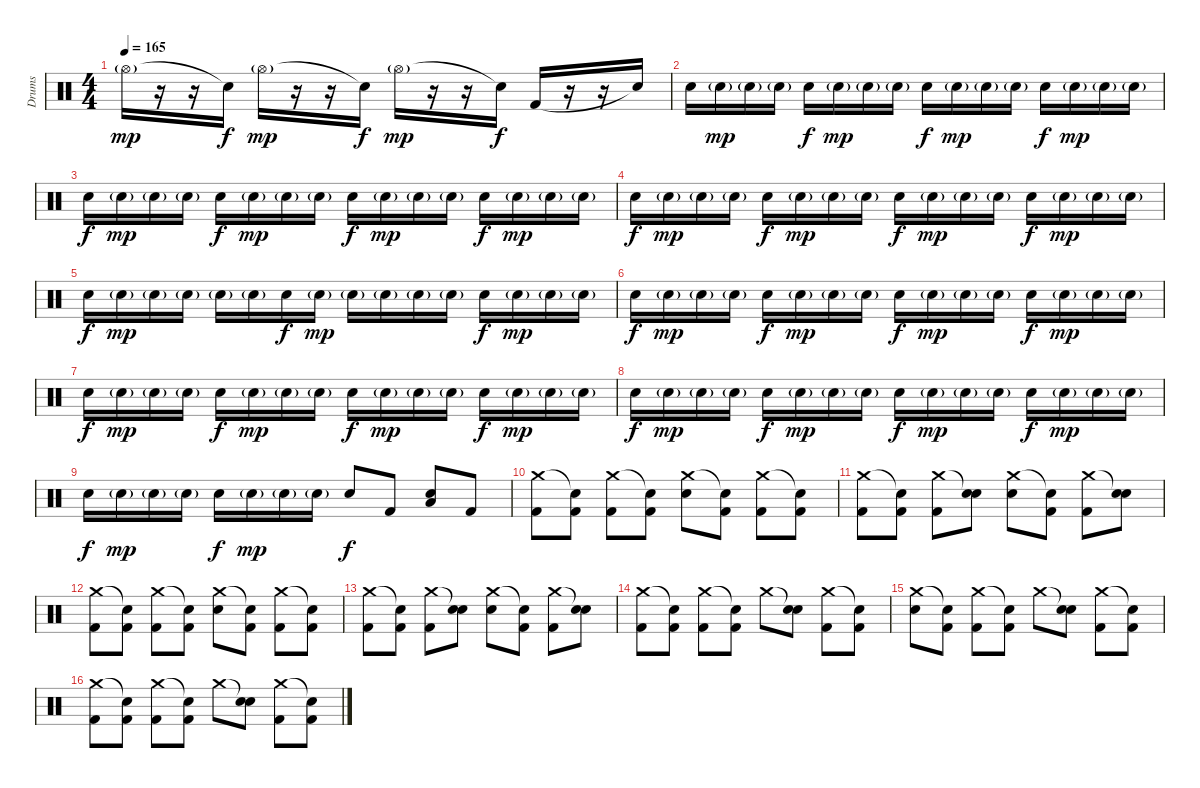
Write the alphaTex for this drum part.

\track ("Drums" "Drums") {instrument percussion}
\staff {score}
\articulation defaults
\ts (4 4)
\tempo 165
\clef neutral
\ks c "Hi-Hat (open)"{g}.16{dy mp}
r.16 r.16 "Snare (hit)"{t}.16{dy f} "Hi-Hat (open)"{g}.16{dy mp} r.16 r.16 "Snare (hit)"{t}.16{dy f} "Hi-Hat (open)"{g}.16{dy mp} r.16 r.16 "Snare (hit)"{t}.16{dy f} "Kick (hit) 2".16 r.16 r.16 "Snare (hit)"{t}.16 |
"Electric Snare (hit)".16 "Electric Snare (hit)"{g}.16{dy mp} "Electric Snare (hit)"{g}.16 "Electric Snare (hit)"{g}.16 "Electric Snare (hit)".16{dy f} "Electric Snare (hit)"{g}.16{dy mp} "Electric Snare (hit)"{g}.16 "Electric Snare (hit)"{g}.16 "Electric Snare (hit)".16{dy f} "Electric Snare (hit)"{g}.16{dy mp} "Electric Snare (hit)"{g}.16 "Electric Snare (hit)"{g}.16 "Electric Snare (hit)".16{dy f} "Electric Snare (hit)"{g}.16{dy mp} "Electric Snare (hit)"{g}.16 "Electric Snare (hit)"{g}.16 |
"Electric Snare (hit)".16{dy f} "Electric Snare (hit)"{g}.16{dy mp} "Electric Snare (hit)"{g}.16 "Electric Snare (hit)"{g}.16 "Electric Snare (hit)".16{dy f} "Electric Snare (hit)"{g}.16{dy mp} "Electric Snare (hit)"{g}.16 "Electric Snare (hit)"{g}.16 "Electric Snare (hit)".16{dy f} "Electric Snare (hit)"{g}.16{dy mp} "Electric Snare (hit)"{g}.16 "Electric Snare (hit)"{g}.16 "Electric Snare (hit)".16{dy f} "Electric Snare (hit)"{g}.16{dy mp} "Electric Snare (hit)"{g}.16 "Electric Snare (hit)"{g}.16 |
"Electric Snare (hit)".16{dy f} "Electric Snare (hit)"{g}.16{dy mp} "Electric Snare (hit)"{g}.16 "Electric Snare (hit)"{g}.16 "Electric Snare (hit)".16{dy f} "Electric Snare (hit)"{g}.16{dy mp} "Electric Snare (hit)"{g}.16 "Electric Snare (hit)"{g}.16 "Electric Snare (hit)".16{dy f} "Electric Snare (hit)"{g}.16{dy mp} "Electric Snare (hit)"{g}.16 "Electric Snare (hit)"{g}.16 "Electric Snare (hit)".16{dy f} "Electric Snare (hit)"{g}.16{dy mp} "Electric Snare (hit)"{g}.16 "Electric Snare (hit)"{g}.16 |
"Electric Snare (hit)".16{dy f} "Electric Snare (hit)"{g}.16{dy mp} "Electric Snare (hit)"{g}.16 "Electric Snare (hit)"{g}.16 "Electric Snare (hit)"{g}.16 "Electric Snare (hit)"{g}.16 "Electric Snare (hit)".16{dy f} "Electric Snare (hit)"{g}.16{dy mp} "Electric Snare (hit)"{g}.16 "Electric Snare (hit)"{g}.16 "Electric Snare (hit)"{g}.16 "Electric Snare (hit)"{g}.16 "Electric Snare (hit)".16{dy f} "Electric Snare (hit)"{g}.16{dy mp} "Electric Snare (hit)"{g}.16 "Electric Snare (hit)"{g}.16 |
"Electric Snare (hit)".16{dy f} "Electric Snare (hit)"{g}.16{dy mp} "Electric Snare (hit)"{g}.16 "Electric Snare (hit)"{g}.16 "Electric Snare (hit)".16{dy f} "Electric Snare (hit)"{g}.16{dy mp} "Electric Snare (hit)"{g}.16 "Electric Snare (hit)"{g}.16 "Electric Snare (hit)".16{dy f} "Electric Snare (hit)"{g}.16{dy mp} "Electric Snare (hit)"{g}.16 "Electric Snare (hit)"{g}.16 "Electric Snare (hit)".16{dy f} "Electric Snare (hit)"{g}.16{dy mp} "Electric Snare (hit)"{g}.16 "Electric Snare (hit)"{g}.16 |
"Electric Snare (hit)".16{dy f} "Electric Snare (hit)"{g}.16{dy mp} "Electric Snare (hit)"{g}.16 "Electric Snare (hit)"{g}.16 "Electric Snare (hit)".16{dy f} "Electric Snare (hit)"{g}.16{dy mp} "Electric Snare (hit)"{g}.16 "Electric Snare (hit)"{g}.16 "Electric Snare (hit)".16{dy f} "Electric Snare (hit)"{g}.16{dy mp} "Electric Snare (hit)"{g}.16 "Electric Snare (hit)"{g}.16 "Electric Snare (hit)".16{dy f} "Electric Snare (hit)"{g}.16{dy mp} "Electric Snare (hit)"{g}.16 "Electric Snare (hit)"{g}.16 |
"Electric Snare (hit)".16{dy f} "Electric Snare (hit)"{g}.16{dy mp} "Electric Snare (hit)"{g}.16 "Electric Snare (hit)"{g}.16 "Electric Snare (hit)".16{dy f} "Electric Snare (hit)"{g}.16{dy mp} "Electric Snare (hit)"{g}.16 "Electric Snare (hit)"{g}.16 "Electric Snare (hit)".16{dy f} "Electric Snare (hit)"{g}.16{dy mp} "Electric Snare (hit)"{g}.16 "Electric Snare (hit)"{g}.16 "Electric Snare (hit)".16{dy f} "Electric Snare (hit)"{g}.16{dy mp} "Electric Snare (hit)"{g}.16 "Electric Snare (hit)"{g}.16 |
"Electric Snare (hit)".16{dy f} "Electric Snare (hit)"{g}.16{dy mp} "Electric Snare (hit)"{g}.16 "Electric Snare (hit)"{g}.16 "Electric Snare (hit)".16{dy f} "Electric Snare (hit)"{g}.16{dy mp} "Electric Snare (hit)"{g}.16 "Electric Snare (hit)"{g}.16 "Electric Snare (hit)".8{dy f} "Kick (hit) 2".8 ("Low Tom (hit)" "Electric Snare (hit)").8 "Kick (hit) 2".8 |
("Crash medium (hit)" "Kick (hit) 2").8 ("Snare (hit)"{t} "Kick (hit) 2").8 ("Crash medium (hit)" "Kick (hit) 2").8 ("Snare (hit)"{t} "Kick (hit) 2").8 ("Crash medium (hit)" "Electric Snare (hit)").8 ("Snare (hit)"{t} "Kick (hit) 2").8 ("Crash medium (hit)" "Kick (hit) 2").8 ("Snare (hit)"{t} "Kick (hit) 2").8 |
("Crash medium (hit)" "Kick (hit) 2").8 ("Snare (hit)"{t} "Kick (hit) 2").8 ("Crash medium (hit)" "Kick (hit) 2").8 ("Snare (hit)"{t} "Electric Snare (hit)").8 ("Crash medium (hit)" "Electric Snare (hit)").8 ("Snare (hit)"{t} "Kick (hit) 2").8 ("Crash medium (hit)" "Kick (hit) 2").8 ("Snare (hit)"{t} "Electric Snare (hit)").8 |
("Crash medium (hit)" "Kick (hit) 2").8 ("Snare (hit)"{t} "Kick (hit) 2").8 ("Crash medium (hit)" "Kick (hit) 2").8 ("Snare (hit)"{t} "Kick (hit) 2").8 ("Crash medium (hit)" "Electric Snare (hit)").8 ("Snare (hit)"{t} "Kick (hit) 2").8 ("Crash medium (hit)" "Kick (hit) 2").8 ("Snare (hit)"{t} "Kick (hit) 2").8 |
("Crash medium (hit)" "Kick (hit) 2").8 ("Snare (hit)"{t} "Kick (hit) 2").8 ("Crash medium (hit)" "Kick (hit) 2").8 ("Snare (hit)"{t} "Electric Snare (hit)").8 ("Crash medium (hit)" "Electric Snare (hit)").8 ("Snare (hit)"{t} "Kick (hit) 2").8 ("Crash medium (hit)" "Kick (hit) 2").8 ("Snare (hit)"{t} "Electric Snare (hit)").8 |
("Crash medium (hit)" "Kick (hit) 2").8 ("Snare (hit)"{t} "Kick (hit) 2").8 ("Crash medium (hit)" "Kick (hit) 2").8 ("Snare (hit)"{t} "Kick (hit) 2").8 "Crash medium (hit)".8 ("Snare (hit)"{t} "Electric Snare (hit)").8 ("Crash medium (hit)" "Kick (hit) 2").8 ("Snare (hit)"{t} "Kick (hit) 2").8 |
("Crash medium (hit)" "Electric Snare (hit)").8 ("Snare (hit)"{t} "Kick (hit) 2").8 ("Crash medium (hit)" "Kick (hit) 2").8 ("Snare (hit)"{t} "Kick (hit) 2").8 "Crash medium (hit)".8 ("Snare (hit)"{t} "Electric Snare (hit)").8 ("Crash medium (hit)" "Kick (hit) 2").8 ("Snare (hit)"{t} "Kick (hit) 2").8 |
("Crash medium (hit)" "Kick (hit) 2").8 ("Snare (hit)"{t} "Kick (hit) 2").8 ("Crash medium (hit)" "Kick (hit) 2").8 ("Snare (hit)"{t} "Kick (hit) 2").8 "Crash medium (hit)".8 ("Snare (hit)"{t} "Electric Snare (hit)").8 ("Crash medium (hit)" "Kick (hit) 2").8 ("Snare (hit)"{t} "Kick (hit) 2").8
